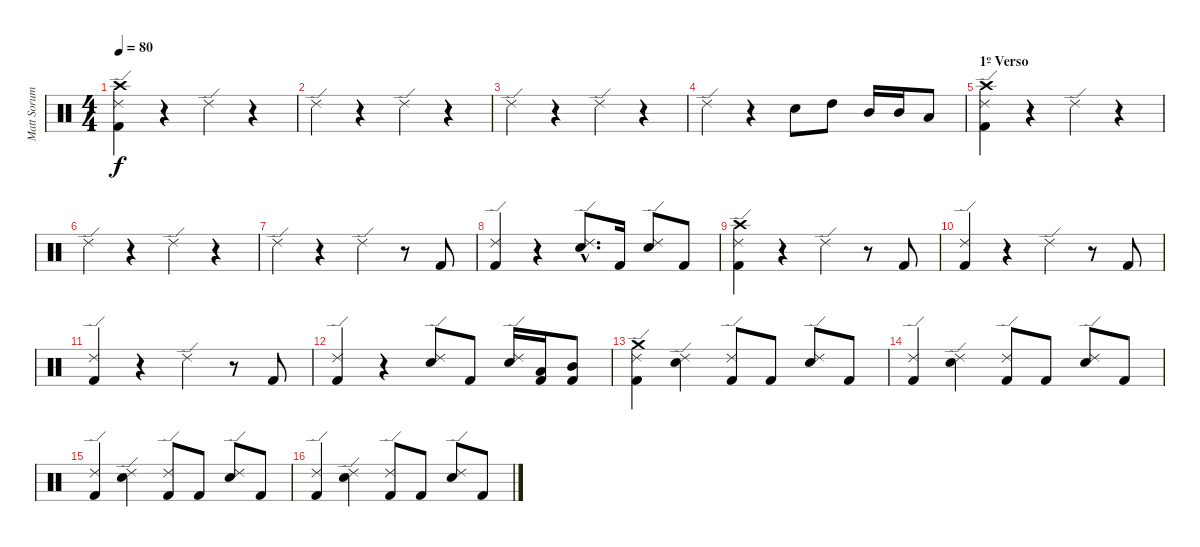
\track ("Matt Sorum" "Matt Sorum") {instrument percussion}
\staff {score}
\articulation defaults
\ts (4 4)
\tempo 80
\clef neutral
\ks c
("Ride (edge) 2" "Kick (hit) 2" "Crash high (hit)").4{dy f} r.4 "Ride (edge) 2".4 r.4 |
"Ride (edge) 2".4 r.4 "Ride (edge) 2".4 r.4 |
"Ride (edge) 2".4 r.4 "Ride (edge) 2".4 r.4 |
"Ride (edge) 2".4 r.4 "Electric Snare (hit)".8 "High Tom (hit)".8 "Mid Tom (hit)".16 "Mid Tom (hit)".16 "Low Tom (hit)".8 |
\section ("" "1º Verso")
("Ride (edge) 2" "Kick (hit) 2" "Crash high (hit)").4 r.4 "Ride (edge) 2".4 r.4 |
"Ride (edge) 2".4 r.4 "Ride (edge) 2".4 r.4 |
"Ride (edge) 2".4 r.4 "Ride (edge) 2".4 r.8 "Kick (hit) 2".8 |
("Ride (edge) 2" "Kick (hit) 2").4 r.4 ("Electric Snare (hit)"{hac} "Ride (edge) 2"{hac}).8{d} "Kick (hit) 2".16 ("Electric Snare (hit)" "Ride (edge) 2").8 "Kick (hit) 2".8 |
("Ride (edge) 2" "Kick (hit) 2" "Crash high (hit)").4 r.4 "Ride (edge) 2".4 r.8 "Kick (hit) 2".8 |
("Ride (edge) 2" "Kick (hit) 2").4 r.4 "Ride (edge) 2".4 r.8 "Kick (hit) 2".8 |
("Ride (edge) 2" "Kick (hit) 2").4 r.4 "Ride (edge) 2".4 r.8 "Kick (hit) 2".8 |
("Ride (edge) 2" "Kick (hit) 2").4 r.4 ("Electric Snare (hit)" "Ride (edge) 2").8 "Kick (hit) 2".8 ("Electric Snare (hit)" "Ride (edge) 2").16 ("Low Tom (hit)" "Kick (hit) 2").16 ("Mid Tom (hit)" "Kick (hit) 2").8 |
("Ride (edge) 2" "Kick (hit) 2" "Crash medium (hit)").4 ("Electric Snare (hit)" "Ride (edge) 2").4 ("Ride (edge) 2" "Kick (hit) 2").8 "Kick (hit) 2".8 ("Electric Snare (hit)" "Ride (edge) 2").8 "Kick (hit) 2".8 |
("Ride (edge) 2" "Kick (hit) 2").4 ("Electric Snare (hit)" "Ride (edge) 2").4 ("Ride (edge) 2" "Kick (hit) 2").8 "Kick (hit) 2".8 ("Electric Snare (hit)" "Ride (edge) 2").8 "Kick (hit) 2".8 |
("Ride (edge) 2" "Kick (hit) 2").4 ("Electric Snare (hit)" "Ride (edge) 2").4 ("Ride (edge) 2" "Kick (hit) 2").8 "Kick (hit) 2".8 ("Electric Snare (hit)" "Ride (edge) 2").8 "Kick (hit) 2".8 |
("Ride (edge) 2" "Kick (hit) 2").4 ("Electric Snare (hit)" "Ride (edge) 2").4 ("Ride (edge) 2" "Kick (hit) 2").8 "Kick (hit) 2".8 ("Electric Snare (hit)" "Ride (edge) 2").8 "Kick (hit) 2".8
